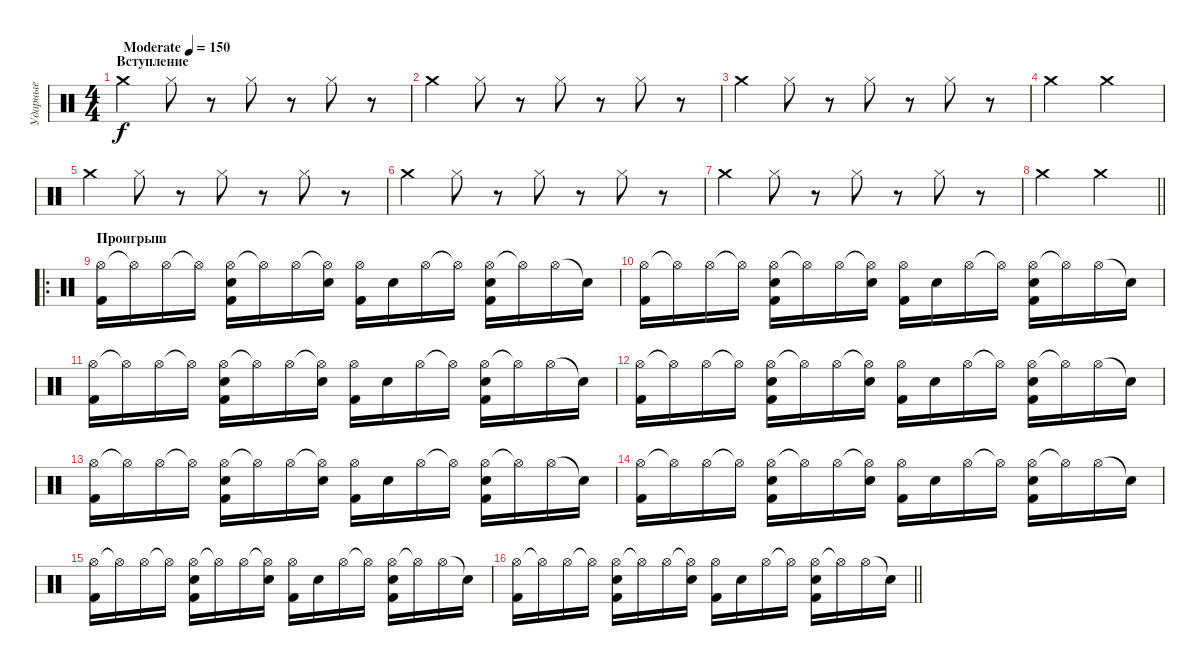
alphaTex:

\track ("Ударные" "Ударные") {instrument percussion}
\staff {score}
\articulation defaults
\ts (4 4)
\section ("" "Вступление")
\tempo (150 "Moderate")
\clef neutral
\ks c "Crash medium (hit)".4{dy f} "Hi-Hat (closed)".8
r.8 "Hi-Hat (closed)".8 r.8 "Hi-Hat (closed)".8 r.8 |
"Crash medium (hit)".4 "Hi-Hat (closed)".8 r.8 "Hi-Hat (closed)".8 r.8 "Hi-Hat (closed)".8 r.8 |
"Crash medium (hit)".4 "Hi-Hat (closed)".8 r.8 "Hi-Hat (closed)".8 r.8 "Hi-Hat (closed)".8 r.8 |
"Crash medium (hit)".2 "Crash medium (hit)".2 |
"Crash medium (hit)".4 "Hi-Hat (closed)".8 r.8 "Hi-Hat (closed)".8 r.8 "Hi-Hat (closed)".8 r.8 |
"Crash medium (hit)".4 "Hi-Hat (closed)".8 r.8 "Hi-Hat (closed)".8 r.8 "Hi-Hat (closed)".8 r.8 |
"Crash medium (hit)".4 "Hi-Hat (closed)".8 r.8 "Hi-Hat (closed)".8 r.8 "Hi-Hat (closed)".8 r.8 |
\barLineRight lightlight "Crash medium (hit)".2 "Crash medium (hit)".2
|
\ro
\section ("" "Проигрыш")
("Hi-Hat (open)" "Kick (hit) 2").16 "Hi-Hat (open)"{t}.16 "Hi-Hat (open)".16 "Hi-Hat (open)"{t}.16 ("Hi-Hat (open)" "Snare (hit) 2" "Kick (hit) 2").16 "Hi-Hat (open)"{t}.16 "Hi-Hat (open)".16 ("Hi-Hat (open)"{t} "Snare (hit) 2").16 ("Hi-Hat (open)" "Kick (hit) 2").16 "Snare (hit) 2".16 "Hi-Hat (open)".16 "Hi-Hat (open)"{t}.16 ("Hi-Hat (open)" "Snare (hit) 2" "Kick (hit) 2").16 "Hi-Hat (open)"{t}.16 "Hi-Hat (open)".16 "Snare (hit)"{t}.16 |
("Hi-Hat (open)" "Kick (hit) 2").16 "Hi-Hat (open)"{t}.16 "Hi-Hat (open)".16 "Hi-Hat (open)"{t}.16 ("Hi-Hat (open)" "Snare (hit) 2" "Kick (hit) 2").16 "Hi-Hat (open)"{t}.16 "Hi-Hat (open)".16 ("Hi-Hat (open)"{t} "Snare (hit) 2").16 ("Hi-Hat (open)" "Kick (hit) 2").16 "Snare (hit) 2".16 "Hi-Hat (open)".16 "Hi-Hat (open)"{t}.16 ("Hi-Hat (open)" "Snare (hit) 2" "Kick (hit) 2").16 "Hi-Hat (open)"{t}.16 "Hi-Hat (open)".16 "Snare (hit)"{t}.16 |
("Hi-Hat (open)" "Kick (hit) 2").16 "Hi-Hat (open)"{t}.16 "Hi-Hat (open)".16 "Hi-Hat (open)"{t}.16 ("Hi-Hat (open)" "Snare (hit) 2" "Kick (hit) 2").16 "Hi-Hat (open)"{t}.16 "Hi-Hat (open)".16 ("Hi-Hat (open)"{t} "Snare (hit) 2").16 ("Hi-Hat (open)" "Kick (hit) 2").16 "Snare (hit) 2".16 "Hi-Hat (open)".16 "Hi-Hat (open)"{t}.16 ("Hi-Hat (open)" "Snare (hit) 2" "Kick (hit) 2").16 "Hi-Hat (open)"{t}.16 "Hi-Hat (open)".16 "Snare (hit)"{t}.16 |
("Hi-Hat (open)" "Kick (hit) 2").16 "Hi-Hat (open)"{t}.16 "Hi-Hat (open)".16 "Hi-Hat (open)"{t}.16 ("Hi-Hat (open)" "Snare (hit) 2" "Kick (hit) 2").16 "Hi-Hat (open)"{t}.16 "Hi-Hat (open)".16 ("Hi-Hat (open)"{t} "Snare (hit) 2").16 ("Hi-Hat (open)" "Kick (hit) 2").16 "Snare (hit) 2".16 "Hi-Hat (open)".16 "Hi-Hat (open)"{t}.16 ("Hi-Hat (open)" "Snare (hit) 2" "Kick (hit) 2").16 "Hi-Hat (open)"{t}.16 "Hi-Hat (open)".16 "Snare (hit)"{t}.16 |
("Hi-Hat (open)" "Kick (hit) 2").16 "Hi-Hat (open)"{t}.16 "Hi-Hat (open)".16 "Hi-Hat (open)"{t}.16 ("Hi-Hat (open)" "Snare (hit) 2" "Kick (hit) 2").16 "Hi-Hat (open)"{t}.16 "Hi-Hat (open)".16 ("Hi-Hat (open)"{t} "Snare (hit) 2").16 ("Hi-Hat (open)" "Kick (hit) 2").16 "Snare (hit) 2".16 "Hi-Hat (open)".16 "Hi-Hat (open)"{t}.16 ("Hi-Hat (open)" "Snare (hit) 2" "Kick (hit) 2").16 "Hi-Hat (open)"{t}.16 "Hi-Hat (open)".16 "Snare (hit)"{t}.16 |
("Hi-Hat (open)" "Kick (hit) 2").16 "Hi-Hat (open)"{t}.16 "Hi-Hat (open)".16 "Hi-Hat (open)"{t}.16 ("Hi-Hat (open)" "Snare (hit) 2" "Kick (hit) 2").16 "Hi-Hat (open)"{t}.16 "Hi-Hat (open)".16 ("Hi-Hat (open)"{t} "Snare (hit) 2").16 ("Hi-Hat (open)" "Kick (hit) 2").16 "Snare (hit) 2".16 "Hi-Hat (open)".16 "Hi-Hat (open)"{t}.16 ("Hi-Hat (open)" "Snare (hit) 2" "Kick (hit) 2").16 "Hi-Hat (open)"{t}.16 "Hi-Hat (open)".16 "Snare (hit)"{t}.16 |
("Hi-Hat (open)" "Kick (hit) 2").16 "Hi-Hat (open)"{t}.16 "Hi-Hat (open)".16 "Hi-Hat (open)"{t}.16 ("Hi-Hat (open)" "Snare (hit) 2" "Kick (hit) 2").16 "Hi-Hat (open)"{t}.16 "Hi-Hat (open)".16 ("Hi-Hat (open)"{t} "Snare (hit) 2").16 ("Hi-Hat (open)" "Kick (hit) 2").16 "Snare (hit) 2".16 "Hi-Hat (open)".16 "Hi-Hat (open)"{t}.16 ("Hi-Hat (open)" "Snare (hit) 2" "Kick (hit) 2").16 "Hi-Hat (open)"{t}.16 "Hi-Hat (open)".16 "Snare (hit)"{t}.16 |
\barLineRight lightlight
("Hi-Hat (open)" "Kick (hit) 2").16 "Hi-Hat (open)"{t}.16 "Hi-Hat (open)".16 "Hi-Hat (open)"{t}.16 ("Hi-Hat (open)" "Snare (hit) 2" "Kick (hit) 2").16 "Hi-Hat (open)"{t}.16 "Hi-Hat (open)".16 ("Hi-Hat (open)"{t} "Snare (hit) 2").16 ("Hi-Hat (open)" "Kick (hit) 2").16 "Snare (hit) 2".16 "Hi-Hat (open)".16 "Hi-Hat (open)"{t}.16 ("Hi-Hat (open)" "Snare (hit) 2" "Kick (hit) 2").16 "Hi-Hat (open)"{t}.16 "Hi-Hat (open)".16 "Snare (hit)"{t}.16
